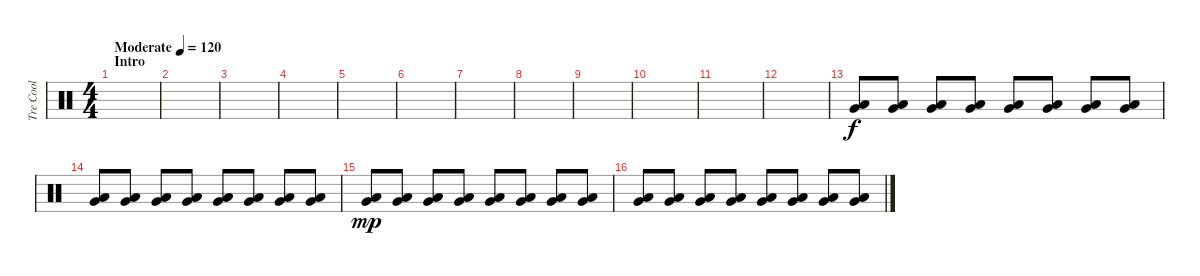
\track ("Tre Cool" "Tre Cool") {instrument percussion}
\staff {score}
\articulation defaults
\ts (4 4)
\section ("" "Intro")
\tempo (120 "Moderate")
\clef neutral
\ks c
|
|
|
|
|
|
|
|
|
|
|
|
("Very Low Tom (hit)" "Low Tom (hit)").8 ("Very Low Tom (hit)" "Low Tom (hit)").8 ("Very Low Tom (hit)" "Low Tom (hit)").8 ("Very Low Tom (hit)" "Low Tom (hit)").8 ("Very Low Tom (hit)" "Low Tom (hit)").8 ("Very Low Tom (hit)" "Low Tom (hit)").8 ("Very Low Tom (hit)" "Low Tom (hit)").8 ("Very Low Tom (hit)" "Low Tom (hit)").8 |
("Very Low Tom (hit)" "Low Tom (hit)").8 ("Very Low Tom (hit)" "Low Tom (hit)").8 ("Very Low Tom (hit)" "Low Tom (hit)").8 ("Very Low Tom (hit)" "Low Tom (hit)").8 ("Very Low Tom (hit)" "Low Tom (hit)").8 ("Very Low Tom (hit)" "Low Tom (hit)").8 ("Very Low Tom (hit)" "Low Tom (hit)").8 ("Very Low Tom (hit)" "Low Tom (hit)").8 |
("Very Low Tom (hit)" "Low Tom (hit)").8{dy mp} ("Very Low Tom (hit)" "Low Tom (hit)").8 ("Very Low Tom (hit)" "Low Tom (hit)").8 ("Very Low Tom (hit)" "Low Tom (hit)").8 ("Very Low Tom (hit)" "Low Tom (hit)").8 ("Very Low Tom (hit)" "Low Tom (hit)").8 ("Very Low Tom (hit)" "Low Tom (hit)").8 ("Very Low Tom (hit)" "Low Tom (hit)").8 |
("Very Low Tom (hit)" "Low Tom (hit)").8 ("Very Low Tom (hit)" "Low Tom (hit)").8 ("Very Low Tom (hit)" "Low Tom (hit)").8 ("Very Low Tom (hit)" "Low Tom (hit)").8 ("Very Low Tom (hit)" "Low Tom (hit)").8 ("Very Low Tom (hit)" "Low Tom (hit)").8 ("Very Low Tom (hit)" "Low Tom (hit)").8 ("Very Low Tom (hit)" "Low Tom (hit)").8
